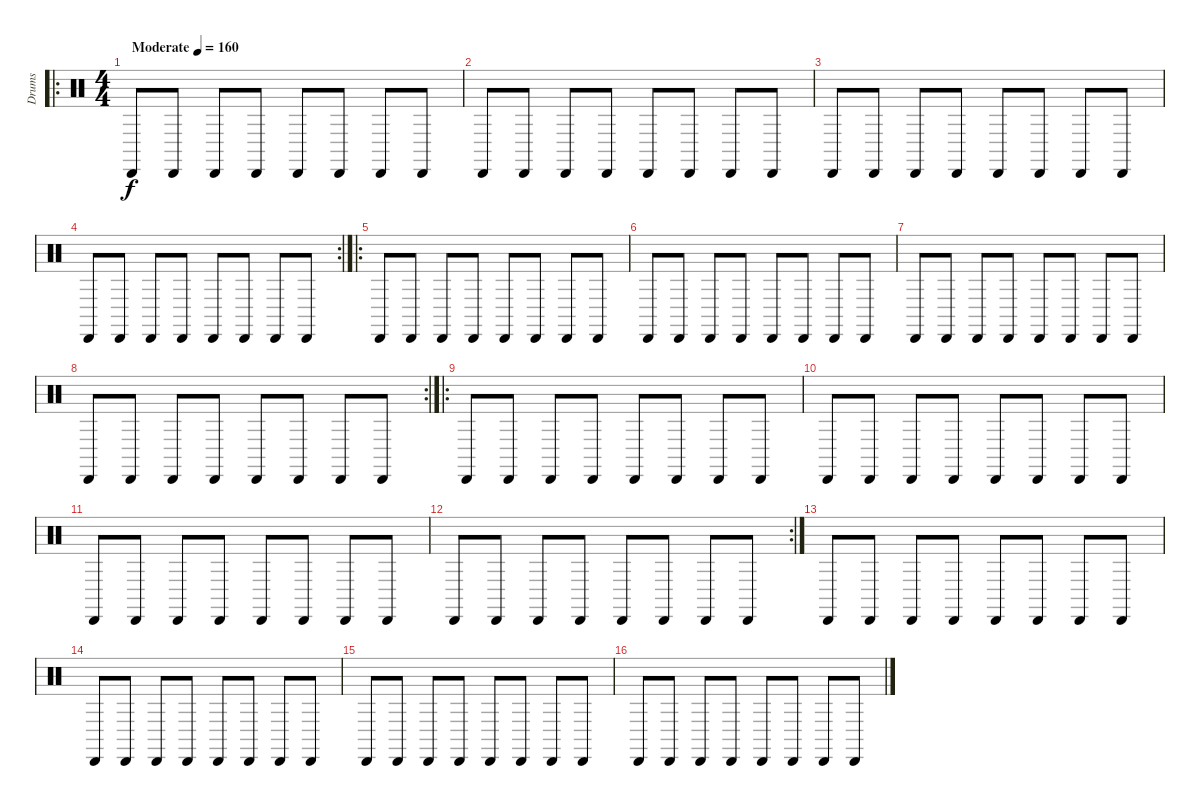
\track ("Drums" "Drums") {instrument percussion}
\staff {score}
\articulation defaults
\ro
\ts (4 4)
\tempo (160 "Moderate")
\clef neutral
\ks c "Cabasa (hit)".8{dy f} "Cabasa (hit)".8 "Cabasa (hit)".8 "Cabasa (hit)".8 "Cabasa (hit)".8 "Cabasa (hit)".8 "Cabasa (hit)".8 "Cabasa (hit)".8
|
"Cabasa (hit)".8 "Cabasa (hit)".8 "Cabasa (hit)".8 "Cabasa (hit)".8 "Cabasa (hit)".8 "Cabasa (hit)".8 "Cabasa (hit)".8 "Cabasa (hit)".8 |
"Cabasa (hit)".8 "Cabasa (hit)".8 "Cabasa (hit)".8 "Cabasa (hit)".8 "Cabasa (hit)".8 "Cabasa (hit)".8 "Cabasa (hit)".8 "Cabasa (hit)".8 |
\rc 2 "Cabasa (hit)".8 "Cabasa (hit)".8 "Cabasa (hit)".8 "Cabasa (hit)".8 "Cabasa (hit)".8 "Cabasa (hit)".8 "Cabasa (hit)".8 "Cabasa (hit)".8
|
\ro "Cabasa (hit)".8 "Cabasa (hit)".8 "Cabasa (hit)".8 "Cabasa (hit)".8 "Cabasa (hit)".8 "Cabasa (hit)".8 "Cabasa (hit)".8 "Cabasa (hit)".8
|
"Cabasa (hit)".8 "Cabasa (hit)".8 "Cabasa (hit)".8 "Cabasa (hit)".8 "Cabasa (hit)".8 "Cabasa (hit)".8 "Cabasa (hit)".8 "Cabasa (hit)".8 |
"Cabasa (hit)".8 "Cabasa (hit)".8 "Cabasa (hit)".8 "Cabasa (hit)".8 "Cabasa (hit)".8 "Cabasa (hit)".8 "Cabasa (hit)".8 "Cabasa (hit)".8 |
\rc 2 "Cabasa (hit)".8 "Cabasa (hit)".8 "Cabasa (hit)".8 "Cabasa (hit)".8 "Cabasa (hit)".8 "Cabasa (hit)".8 "Cabasa (hit)".8 "Cabasa (hit)".8
|
\ro "Cabasa (hit)".8 "Cabasa (hit)".8 "Cabasa (hit)".8 "Cabasa (hit)".8 "Cabasa (hit)".8 "Cabasa (hit)".8 "Cabasa (hit)".8 "Cabasa (hit)".8
|
"Cabasa (hit)".8 "Cabasa (hit)".8 "Cabasa (hit)".8 "Cabasa (hit)".8 "Cabasa (hit)".8 "Cabasa (hit)".8 "Cabasa (hit)".8 "Cabasa (hit)".8 |
"Cabasa (hit)".8 "Cabasa (hit)".8 "Cabasa (hit)".8 "Cabasa (hit)".8 "Cabasa (hit)".8 "Cabasa (hit)".8 "Cabasa (hit)".8 "Cabasa (hit)".8 |
\rc 2 "Cabasa (hit)".8 "Cabasa (hit)".8 "Cabasa (hit)".8 "Cabasa (hit)".8 "Cabasa (hit)".8 "Cabasa (hit)".8 "Cabasa (hit)".8 "Cabasa (hit)".8
|
"Cabasa (hit)".8 "Cabasa (hit)".8 "Cabasa (hit)".8 "Cabasa (hit)".8 "Cabasa (hit)".8 "Cabasa (hit)".8 "Cabasa (hit)".8 "Cabasa (hit)".8 |
"Cabasa (hit)".8 "Cabasa (hit)".8 "Cabasa (hit)".8 "Cabasa (hit)".8 "Cabasa (hit)".8 "Cabasa (hit)".8 "Cabasa (hit)".8 "Cabasa (hit)".8 |
"Cabasa (hit)".8 "Cabasa (hit)".8 "Cabasa (hit)".8 "Cabasa (hit)".8 "Cabasa (hit)".8 "Cabasa (hit)".8 "Cabasa (hit)".8 "Cabasa (hit)".8 |
"Cabasa (hit)".8 "Cabasa (hit)".8 "Cabasa (hit)".8 "Cabasa (hit)".8 "Cabasa (hit)".8 "Cabasa (hit)".8 "Cabasa (hit)".8 "Cabasa (hit)".8
